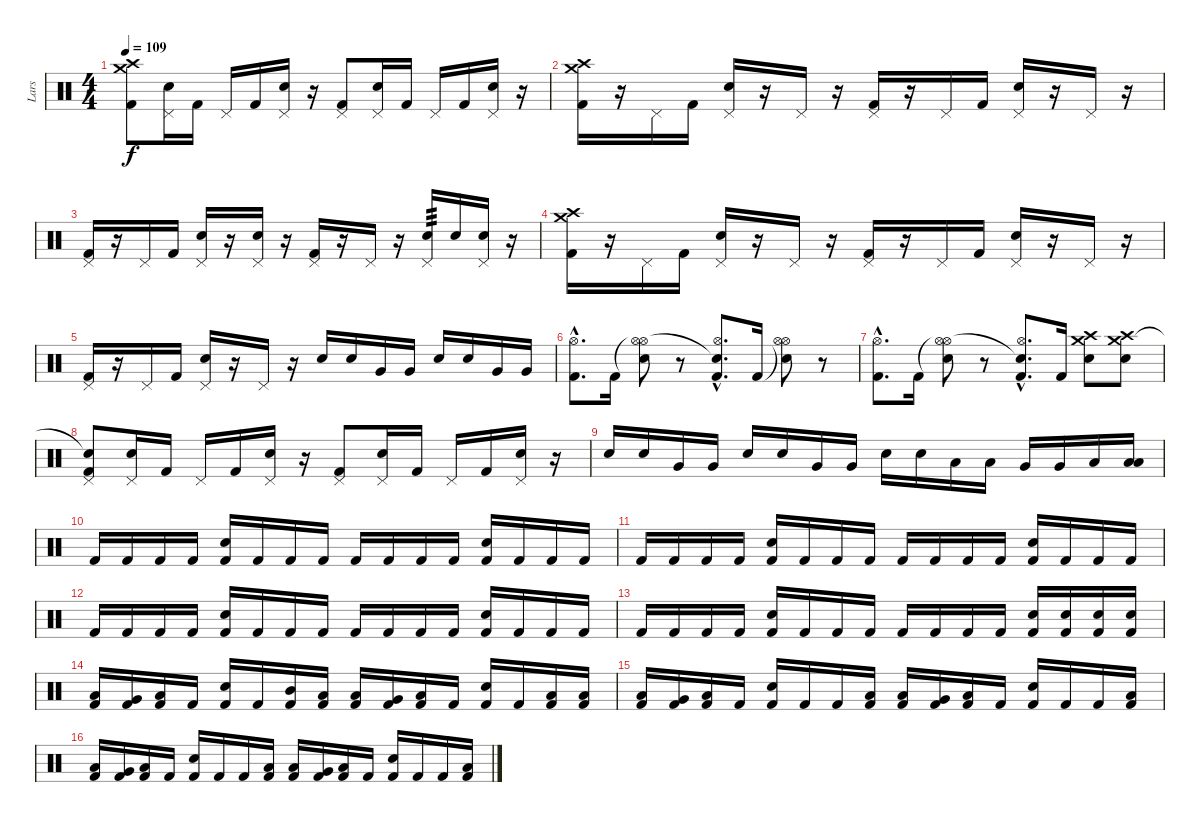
\track ("Lars" "Lars") {instrument percussion}
\staff {score}
\articulation defaults
\ts (4 4)
\tempo 109
\clef neutral
\ks c
("Crash high (hit)" "Crash medium (hit)" "Kick (hit) 2").8{dy f} ("Pedal Hi-Hat (hit)" "Electric Snare (hit)").16 "Kick (hit) 2".16 "Pedal Hi-Hat (hit)".16 "Kick (hit) 2".16 ("Pedal Hi-Hat (hit)" "Electric Snare (hit)").16 r.16 ("Pedal Hi-Hat (hit)" "Kick (hit) 2").8 ("Pedal Hi-Hat (hit)" "Electric Snare (hit)").16 "Kick (hit) 2".16 "Pedal Hi-Hat (hit)".16 "Kick (hit) 2".16 ("Pedal Hi-Hat (hit)" "Electric Snare (hit)").16 r.16 |
("Crash medium (hit)" "Crash high (hit)" "Kick (hit) 2").16 r.16 "Pedal Hi-Hat (hit)".16 "Kick (hit) 2".16 ("Pedal Hi-Hat (hit)" "Electric Snare (hit)").16 r.16 "Pedal Hi-Hat (hit)".16 r.16 ("Pedal Hi-Hat (hit)" "Kick (hit) 2").16 r.16 "Pedal Hi-Hat (hit)".16 "Kick (hit) 2".16 ("Pedal Hi-Hat (hit)" "Electric Snare (hit)").16 r.16 "Pedal Hi-Hat (hit)".16 r.16 |
("Pedal Hi-Hat (hit)" "Kick (hit) 2").16 r.16 "Pedal Hi-Hat (hit)".16 "Kick (hit) 2".16 ("Pedal Hi-Hat (hit)" "Electric Snare (hit)").16 r.16 ("Pedal Hi-Hat (hit)" "Electric Snare (hit)").16 r.16 ("Pedal Hi-Hat (hit)" "Kick (hit) 2").16 r.16 "Pedal Hi-Hat (hit)".16 r.16 ("Pedal Hi-Hat (hit)" "Electric Snare (hit)").16{tp 3} "Electric Snare (hit)".16 ("Pedal Hi-Hat (hit)" "Electric Snare (hit)").16 r.16 |
("Crash high (hit)" "Crash medium (hit)" "Kick (hit) 2").16 r.16 "Pedal Hi-Hat (hit)".16 "Kick (hit) 2".16 ("Pedal Hi-Hat (hit)" "Electric Snare (hit)").16 r.16 "Pedal Hi-Hat (hit)".16 r.16 ("Pedal Hi-Hat (hit)" "Kick (hit) 2").16 r.16 "Pedal Hi-Hat (hit)".16 "Kick (hit) 2".16 ("Pedal Hi-Hat (hit)" "Electric Snare (hit)").16 r.16 "Pedal Hi-Hat (hit)".16 r.16 |
("Pedal Hi-Hat (hit)" "Kick (hit) 2").16 r.16 "Pedal Hi-Hat (hit)".16 "Kick (hit) 2".16 ("Pedal Hi-Hat (hit)" "Electric Snare (hit)").16 r.16 "Pedal Hi-Hat (hit)".16 r.16 "Electric Snare (hit)".16 "Electric Snare (hit)".16 "Very Low Tom (hit)".16 "Very Low Tom (hit)".16 "Electric Snare (hit)".16 "Electric Snare (hit)".16 "Very Low Tom (hit)".16 "Very Low Tom (hit)".16 |
("Hi-Hat (open)"{hac} "Kick (hit) 2"{hac}).8{d} "Kick (hit) 2".16 ("Hi-Hat (open)"{t} "Hi-Hat (open)" "Electric Snare (hit)").8 r.8 ("Hi-Hat (open)"{hac} "Snare (hit)"{hac t} "Kick (hit) 2"{hac}).8{d} "Kick (hit) 2".16 ("Hi-Hat (open)"{t} "Hi-Hat (open)" "Electric Snare (hit)").8 r.8 |
("Hi-Hat (open)"{hac} "Kick (hit) 2"{hac}).8{d} "Kick (hit) 2".16 ("Hi-Hat (open)"{t} "Hi-Hat (open)" "Electric Snare (hit)").8 r.8 ("Hi-Hat (open)"{hac} "Snare (hit)"{hac t} "Kick (hit) 2"{hac}).8{d} "Kick (hit) 2".16 ("Crash high (hit)" "Crash medium (hit)" "Electric Snare (hit)").8 ("Crash high (hit)" "Crash medium (hit)" "Electric Snare (hit)").8 |
("Pedal Hi-Hat (hit)" "Snare (hit)"{t} "Kick (hit) 2").8 ("Pedal Hi-Hat (hit)" "Electric Snare (hit)").16 "Kick (hit) 2".16 "Pedal Hi-Hat (hit)".16 "Kick (hit) 2".16 ("Pedal Hi-Hat (hit)" "Electric Snare (hit)").16 r.16 ("Pedal Hi-Hat (hit)" "Kick (hit) 2").8 ("Pedal Hi-Hat (hit)" "Electric Snare (hit)").16 "Kick (hit) 2".16 "Pedal Hi-Hat (hit)".16 "Kick (hit) 2".16 ("Pedal Hi-Hat (hit)" "Electric Snare (hit)").16 r.16 |
"Electric Snare (hit)".16 "Electric Snare (hit)".16 "Very Low Tom (hit)".16 "Very Low Tom (hit)".16 "Electric Snare (hit)".16 "Electric Snare (hit)".16 "Very Low Tom (hit)".16 "Very Low Tom (hit)".16 "Electric Snare (hit)".16 "Electric Snare (hit)".16 "Low Tom (hit)".16 "Low Tom (hit)".16 "Very Low Tom (hit)".16 "Very Low Tom (hit)".16 "Low Floor Tom (hit)".16 ("Low Tom (hit)" "Low Floor Tom (hit)").16 |
"Kick (hit) 2".16 "Kick (hit) 2".16 "Kick (hit) 2".16 "Kick (hit) 2".16 ("Electric Snare (hit)" "Kick (hit) 2").16 "Kick (hit) 2".16 "Kick (hit) 2".16 "Kick (hit) 2".16 "Kick (hit) 2".16 "Kick (hit) 2".16 "Kick (hit) 2".16 "Kick (hit) 2".16 ("Electric Snare (hit)" "Kick (hit) 2").16 "Kick (hit) 2".16 "Kick (hit) 2".16 "Kick (hit) 2".16 |
"Kick (hit) 2".16 "Kick (hit) 2".16 "Kick (hit) 2".16 "Kick (hit) 2".16 ("Electric Snare (hit)" "Kick (hit) 2").16 "Kick (hit) 2".16 "Kick (hit) 2".16 "Kick (hit) 2".16 "Kick (hit) 2".16 "Kick (hit) 2".16 "Kick (hit) 2".16 "Kick (hit) 2".16 ("Electric Snare (hit)" "Kick (hit) 2").16 "Kick (hit) 2".16 "Kick (hit) 2".16 "Kick (hit) 2".16 |
"Kick (hit) 2".16 "Kick (hit) 2".16 "Kick (hit) 2".16 "Kick (hit) 2".16 ("Electric Snare (hit)" "Kick (hit) 2").16 "Kick (hit) 2".16 "Kick (hit) 2".16 "Kick (hit) 2".16 "Kick (hit) 2".16 "Kick (hit) 2".16 "Kick (hit) 2".16 "Kick (hit) 2".16 ("Electric Snare (hit)" "Kick (hit) 2").16 "Kick (hit) 2".16 "Kick (hit) 2".16 "Kick (hit) 2".16 |
"Kick (hit) 2".16 "Kick (hit) 2".16 "Kick (hit) 2".16 "Kick (hit) 2".16 ("Electric Snare (hit)" "Kick (hit) 2").16 "Kick (hit) 2".16 "Kick (hit) 2".16 "Kick (hit) 2".16 "Kick (hit) 2".16 "Kick (hit) 2".16 "Kick (hit) 2".16 "Kick (hit) 2".16 ("Electric Snare (hit)" "Kick (hit) 2").16 ("Electric Snare (hit)" "Kick (hit) 2").16 ("Electric Snare (hit)" "Kick (hit) 2").16 ("Electric Snare (hit)" "Kick (hit) 2").16 |
("Low Tom (hit)" "Kick (hit) 2").16 ("Very Low Tom (hit)" "Kick (hit) 2").16 ("Low Floor Tom (hit)" "Kick (hit) 2").16 "Kick (hit) 2".16 ("Electric Snare (hit)" "Kick (hit) 2").16 "Kick (hit) 2".16 ("Mid Tom (hit)" "Kick (hit) 2").16 ("Low Tom (hit)" "Kick (hit) 2").16 ("Low Tom (hit)" "Kick (hit) 2").16 ("Very Low Tom (hit)" "Kick (hit) 2").16 ("Low Floor Tom (hit)" "Kick (hit) 2").16 "Kick (hit) 2".16 ("Electric Snare (hit)" "Kick (hit) 2").16 "Kick (hit) 2".16 ("Low Tom (hit)" "Kick (hit) 2").16 ("Low Tom (hit)" "Kick (hit) 2").16 |
("Low Tom (hit)" "Kick (hit) 2").16 ("Very Low Tom (hit)" "Kick (hit) 2").16 ("Low Floor Tom (hit)" "Kick (hit) 2").16 "Kick (hit) 2".16 ("Electric Snare (hit)" "Kick (hit) 2").16 "Kick (hit) 2".16 "Kick (hit) 2".16 ("Low Tom (hit)" "Kick (hit) 2").16 ("Low Tom (hit)" "Kick (hit) 2").16 ("Very Low Tom (hit)" "Kick (hit) 2").16 ("Low Floor Tom (hit)" "Kick (hit) 2").16 "Kick (hit) 2".16 ("Electric Snare (hit)" "Kick (hit) 2").16 "Kick (hit) 2".16 "Kick (hit) 2".16 ("Low Tom (hit)" "Kick (hit) 2").16 |
("Low Tom (hit)" "Kick (hit) 2").16 ("Very Low Tom (hit)" "Kick (hit) 2").16 ("Low Floor Tom (hit)" "Kick (hit) 2").16 "Kick (hit) 2".16 ("Electric Snare (hit)" "Kick (hit) 2").16 "Kick (hit) 2".16 "Kick (hit) 2".16 ("Low Tom (hit)" "Kick (hit) 2").16 ("Low Tom (hit)" "Kick (hit) 2").16 ("Very Low Tom (hit)" "Kick (hit) 2").16 ("Low Floor Tom (hit)" "Kick (hit) 2").16 "Kick (hit) 2".16 ("Electric Snare (hit)" "Kick (hit) 2").16 "Kick (hit) 2".16 "Kick (hit) 2".16 ("Low Tom (hit)" "Kick (hit) 2").16
